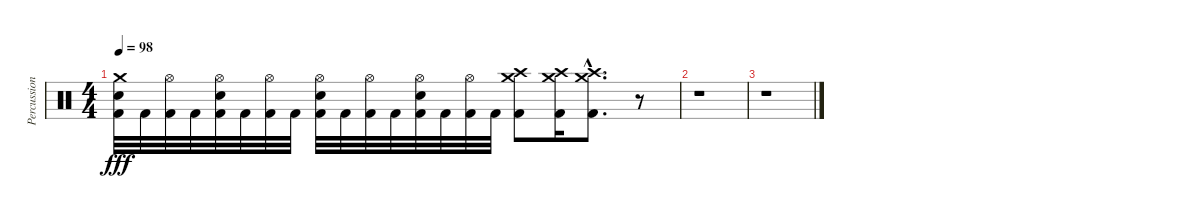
\track ("Percussion" "Percussion") {instrument percussion}
\staff {score}
\articulation defaults
\ts (4 4)
\tempo 98
\clef neutral
\ks c
("Crash medium (hit)" "Snare (hit) 2" "Kick (hit) 2").32{dy fff} "Kick (hit) 2".32 ("Hi-Hat (open)" "Kick (hit) 2").32 "Kick (hit) 2".32 ("Hi-Hat (open)" "Snare (hit) 2" "Kick (hit) 2").32 "Kick (hit) 2".32 ("Hi-Hat (open)" "Kick (hit) 2").32 "Kick (hit) 2".32 ("Hi-Hat (open)" "Snare (hit) 2" "Kick (hit) 2").32 "Kick (hit) 2".32 ("Hi-Hat (open)" "Kick (hit) 2").32 "Kick (hit) 2".32 ("Hi-Hat (open)" "Snare (hit) 2" "Kick (hit) 2").32 "Kick (hit) 2".32 ("Hi-Hat (open)" "Kick (hit) 2").32 "Kick (hit) 2".32 ("Crash high (hit)" "Crash medium (hit)" "Kick (hit) 2").8 ("Crash medium (hit)" "Crash high (hit)" "Kick (hit) 2").16 ("Crash high (hit)"{hac} "Crash medium (hit)"{hac} "Kick (hit) 2"{hac}).8{d} r.8 |
r.1 |
r.1
